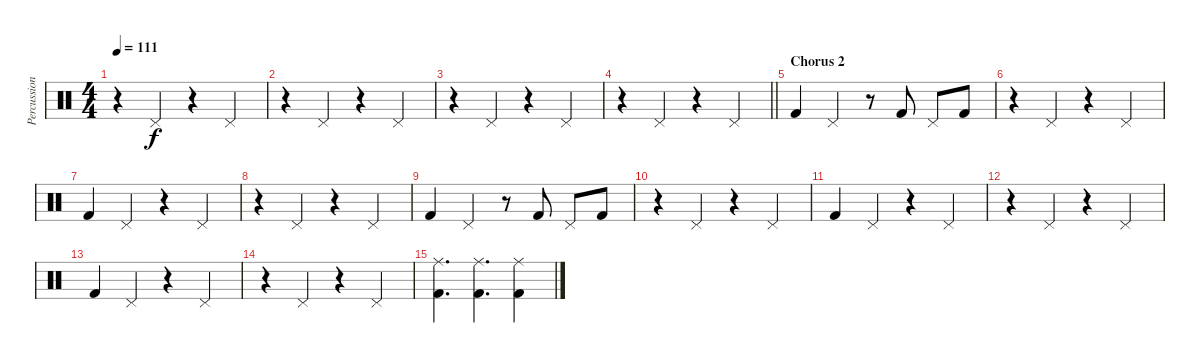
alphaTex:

\track ("Percussion" "Percussion") {instrument percussion}
\staff {score}
\articulation defaults
\ts (4 4)
\tempo 111
\clef neutral
\ks c
r.4{dy f} "Pedal Hi-Hat (hit)".4 r.4 "Pedal Hi-Hat (hit)".4 |
r.4 "Pedal Hi-Hat (hit)".4 r.4 "Pedal Hi-Hat (hit)".4 |
r.4 "Pedal Hi-Hat (hit)".4 r.4 "Pedal Hi-Hat (hit)".4 |
\barLineRight lightlight
r.4 "Pedal Hi-Hat (hit)".4 r.4 "Pedal Hi-Hat (hit)".4 |
\section ("" "Chorus 2")
"Kick (hit) 2".4 "Pedal Hi-Hat (hit)".4 r.8 "Kick (hit) 2".8 "Pedal Hi-Hat (hit)".8 "Kick (hit) 2".8 |
r.4 "Pedal Hi-Hat (hit)".4 r.4 "Pedal Hi-Hat (hit)".4 |
"Kick (hit) 2".4 "Pedal Hi-Hat (hit)".4 r.4 "Pedal Hi-Hat (hit)".4 |
r.4 "Pedal Hi-Hat (hit)".4 r.4 "Pedal Hi-Hat (hit)".4 |
"Kick (hit) 2".4 "Pedal Hi-Hat (hit)".4 r.8 "Kick (hit) 2".8 "Pedal Hi-Hat (hit)".8 "Kick (hit) 2".8 |
r.4 "Pedal Hi-Hat (hit)".4 r.4 "Pedal Hi-Hat (hit)".4 |
"Kick (hit) 2".4 "Pedal Hi-Hat (hit)".4 r.4 "Pedal Hi-Hat (hit)".4 |
r.4 "Pedal Hi-Hat (hit)".4 r.4 "Pedal Hi-Hat (hit)".4 |
"Kick (hit) 2".4 "Pedal Hi-Hat (hit)".4 r.4 "Pedal Hi-Hat (hit)".4 |
r.4 "Pedal Hi-Hat (hit)".4 r.4 "Pedal Hi-Hat (hit)".4 |
("Ride (middle)" "Kick (hit) 2").4{d} ("Ride (middle)" "Kick (hit) 2").4{d} ("Ride (middle)" "Kick (hit) 2").4
